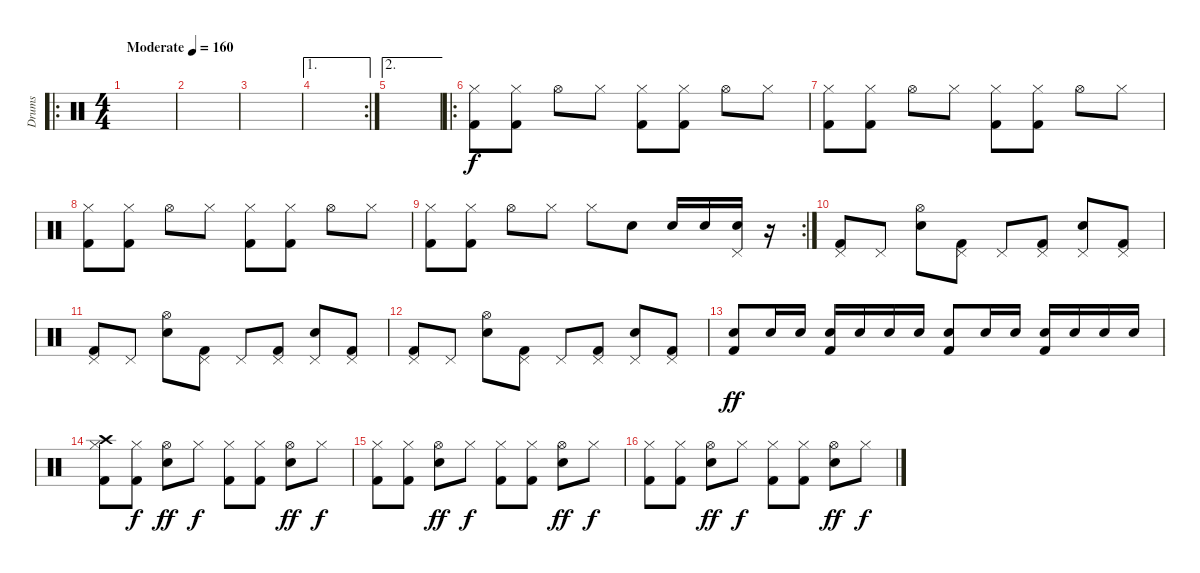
\track ("Drums" "Drums") {instrument percussion}
\staff {score}
\articulation defaults
\ro
\ts (4 4)
\tempo (160 "Moderate")
\clef neutral
\ks c
|
|
|
\ae 1
\rc 2
|
\ae 2
|
\ro
("Kick (hit) 2" "Hi-Hat (closed)").8 ("Kick (hit) 2" "Hi-Hat (closed)").8 "Hi-Hat (open)".8 "Hi-Hat (closed)".8 ("Kick (hit) 2" "Hi-Hat (closed)").8 ("Kick (hit) 2" "Hi-Hat (closed)").8 "Hi-Hat (open)".8 "Hi-Hat (closed)".8 |
("Kick (hit) 2" "Hi-Hat (closed)").8 ("Kick (hit) 2" "Hi-Hat (closed)").8 "Hi-Hat (open)".8 "Hi-Hat (closed)".8 ("Kick (hit) 2" "Hi-Hat (closed)").8 ("Kick (hit) 2" "Hi-Hat (closed)").8 "Hi-Hat (open)".8 "Hi-Hat (closed)".8 |
("Kick (hit) 2" "Hi-Hat (closed)").8 ("Kick (hit) 2" "Hi-Hat (closed)").8 "Hi-Hat (open)".8 "Hi-Hat (closed)".8 ("Kick (hit) 2" "Hi-Hat (closed)").8 ("Kick (hit) 2" "Hi-Hat (closed)").8 "Hi-Hat (open)".8 "Hi-Hat (closed)".8 |
\rc 2
("Kick (hit) 2" "Hi-Hat (closed)").8 ("Kick (hit) 2" "Hi-Hat (closed)").8 "Hi-Hat (open)".8 "Hi-Hat (closed)".8 "Hi-Hat (closed)".8 "Electric Snare (hit)".8 "Snare (hit) 2".16 "Snare (hit) 2".16 ("Pedal Hi-Hat (hit)" "Snare (hit) 2").16 r.16 |
("Kick (hit) 2" "Pedal Hi-Hat (hit)").8 "Pedal Hi-Hat (hit)".8 ("Snare (hit) 2" "Hi-Hat (open)").8 ("Kick (hit) 2" "Pedal Hi-Hat (hit)").8 "Pedal Hi-Hat (hit)".8 ("Kick (hit) 2" "Pedal Hi-Hat (hit)").8 ("Snare (hit) 2" "Pedal Hi-Hat (hit)").8 ("Kick (hit) 2" "Pedal Hi-Hat (hit)").8 |
("Kick (hit) 2" "Pedal Hi-Hat (hit)").8 "Pedal Hi-Hat (hit)".8 ("Snare (hit) 2" "Hi-Hat (open)").8 ("Kick (hit) 2" "Pedal Hi-Hat (hit)").8 "Pedal Hi-Hat (hit)".8 ("Kick (hit) 2" "Pedal Hi-Hat (hit)").8 ("Snare (hit) 2" "Pedal Hi-Hat (hit)").8 ("Kick (hit) 2" "Pedal Hi-Hat (hit)").8 |
("Kick (hit) 2" "Pedal Hi-Hat (hit)").8 "Pedal Hi-Hat (hit)".8 ("Snare (hit) 2" "Hi-Hat (open)").8 ("Kick (hit) 2" "Pedal Hi-Hat (hit)").8 "Pedal Hi-Hat (hit)".8 ("Kick (hit) 2" "Pedal Hi-Hat (hit)").8 ("Snare (hit) 2" "Pedal Hi-Hat (hit)").8 ("Kick (hit) 2" "Pedal Hi-Hat (hit)").8 |
("Kick (hit) 2" "Snare (hit) 2").8{dy ff} "Snare (hit) 2".16 "Snare (hit) 2".16 ("Kick (hit) 2" "Snare (hit) 2").16 "Snare (hit) 2".16 "Snare (hit) 2".16 "Snare (hit) 2".16 ("Kick (hit) 2" "Electric Snare (hit)").8 "Electric Snare (hit)".16 "Electric Snare (hit)".16 ("Kick (hit) 2" "Electric Snare (hit)").16 "Electric Snare (hit)".16 "Electric Snare (hit)".16 "Electric Snare (hit)".16 |
("Crash high (hit)" "Kick (hit) 2" "Hi-Hat (closed)").8 ("Kick (hit) 2" "Hi-Hat (closed)").8{dy f} ("Snare (hit) 2" "Hi-Hat (open)").8{dy ff} "Hi-Hat (closed)".8{dy f} ("Kick (hit) 2" "Hi-Hat (closed)").8 ("Kick (hit) 2" "Hi-Hat (closed)").8 ("Snare (hit) 2" "Hi-Hat (open)").8{dy ff} "Hi-Hat (closed)".8{dy f} |
("Kick (hit) 2" "Hi-Hat (closed)").8 ("Kick (hit) 2" "Hi-Hat (closed)").8 ("Snare (hit) 2" "Hi-Hat (open)").8{dy ff} "Hi-Hat (closed)".8{dy f} ("Kick (hit) 2" "Hi-Hat (closed)").8 ("Kick (hit) 2" "Hi-Hat (closed)").8 ("Snare (hit) 2" "Hi-Hat (open)").8{dy ff} "Hi-Hat (closed)".8{dy f} |
("Kick (hit) 2" "Hi-Hat (closed)").8 ("Kick (hit) 2" "Hi-Hat (closed)").8 ("Snare (hit) 2" "Hi-Hat (open)").8{dy ff} "Hi-Hat (closed)".8{dy f} ("Kick (hit) 2" "Hi-Hat (closed)").8 ("Kick (hit) 2" "Hi-Hat (closed)").8 ("Snare (hit) 2" "Hi-Hat (open)").8{dy ff} "Hi-Hat (closed)".8{dy f}
